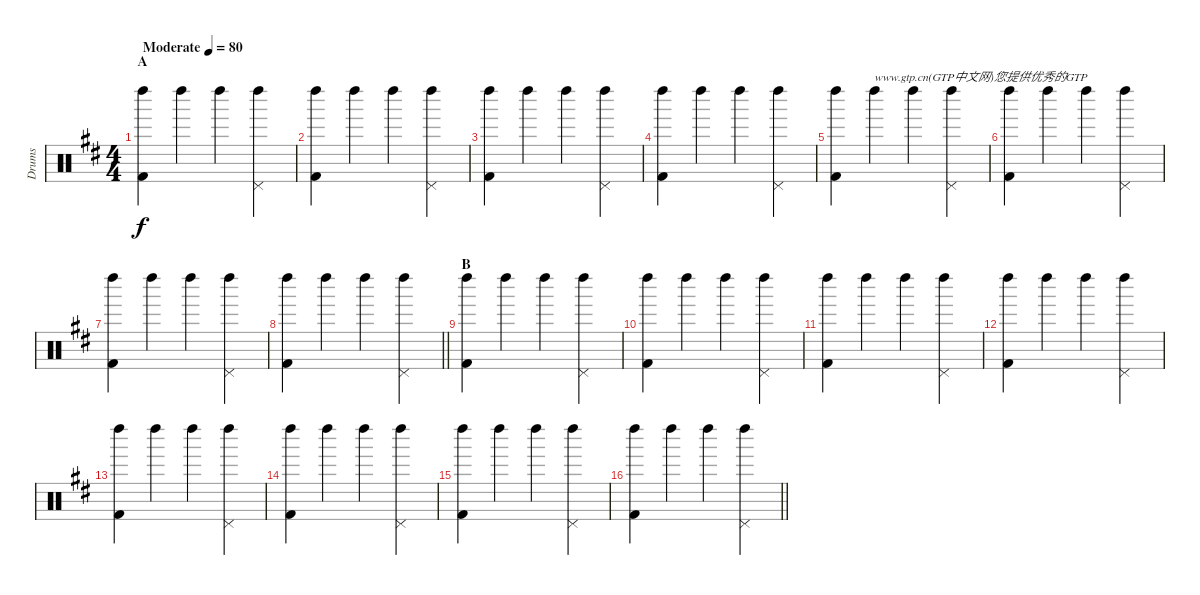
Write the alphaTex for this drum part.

\track ("Drums" "Drums") {instrument percussion}
\staff {score}
\articulation defaults
\ts (4 4)
\section ("" "A")
\tempo (80 "Moderate")
\clef neutral
\ks d
("Left Maraca (hit)" "Kick (hit) 2").4{dy f} "Left Maraca (hit)".4 "Left Maraca (hit)".4 ("Left Maraca (hit)" "Pedal Hi-Hat (hit)").4 |
("Left Maraca (hit)" "Kick (hit) 2").4 "Left Maraca (hit)".4 "Left Maraca (hit)".4 ("Left Maraca (hit)" "Pedal Hi-Hat (hit)").4 |
("Left Maraca (hit)" "Kick (hit) 2").4 "Left Maraca (hit)".4 "Left Maraca (hit)".4 ("Left Maraca (hit)" "Pedal Hi-Hat (hit)").4 |
("Left Maraca (hit)" "Kick (hit) 2").4 "Left Maraca (hit)".4 "Left Maraca (hit)".4 ("Left Maraca (hit)" "Pedal Hi-Hat (hit)").4 |
("Left Maraca (hit)" "Kick (hit) 2").4 "Left Maraca (hit)".4{txt "www.gtp.cn(GTP中文网)您提供优秀的GTP"} "Left Maraca (hit)".4 ("Left Maraca (hit)" "Pedal Hi-Hat (hit)").4 |
("Left Maraca (hit)" "Kick (hit) 2").4 "Left Maraca (hit)".4 "Left Maraca (hit)".4 ("Left Maraca (hit)" "Pedal Hi-Hat (hit)").4 |
("Left Maraca (hit)" "Kick (hit) 2").4 "Left Maraca (hit)".4 "Left Maraca (hit)".4 ("Left Maraca (hit)" "Pedal Hi-Hat (hit)").4 |
\barLineRight lightlight
("Left Maraca (hit)" "Kick (hit) 2").4 "Left Maraca (hit)".4 "Left Maraca (hit)".4 ("Left Maraca (hit)" "Pedal Hi-Hat (hit)").4 |
\section ("" "B")
("Left Maraca (hit)" "Kick (hit) 2").4 "Left Maraca (hit)".4 "Left Maraca (hit)".4 ("Left Maraca (hit)" "Pedal Hi-Hat (hit)").4 |
("Left Maraca (hit)" "Kick (hit) 2").4 "Left Maraca (hit)".4 "Left Maraca (hit)".4 ("Left Maraca (hit)" "Pedal Hi-Hat (hit)").4 |
("Left Maraca (hit)" "Kick (hit) 2").4 "Left Maraca (hit)".4 "Left Maraca (hit)".4 ("Left Maraca (hit)" "Pedal Hi-Hat (hit)").4 |
("Left Maraca (hit)" "Kick (hit) 2").4 "Left Maraca (hit)".4 "Left Maraca (hit)".4 ("Left Maraca (hit)" "Pedal Hi-Hat (hit)").4 |
("Left Maraca (hit)" "Kick (hit) 2").4 "Left Maraca (hit)".4 "Left Maraca (hit)".4 ("Left Maraca (hit)" "Pedal Hi-Hat (hit)").4 |
("Left Maraca (hit)" "Kick (hit) 2").4 "Left Maraca (hit)".4 "Left Maraca (hit)".4 ("Left Maraca (hit)" "Pedal Hi-Hat (hit)").4 |
("Left Maraca (hit)" "Kick (hit) 2").4 "Left Maraca (hit)".4 "Left Maraca (hit)".4 ("Left Maraca (hit)" "Pedal Hi-Hat (hit)").4 |
\barLineRight lightlight
("Left Maraca (hit)" "Kick (hit) 2").4 "Left Maraca (hit)".4 "Left Maraca (hit)".4 ("Left Maraca (hit)" "Pedal Hi-Hat (hit)").4
